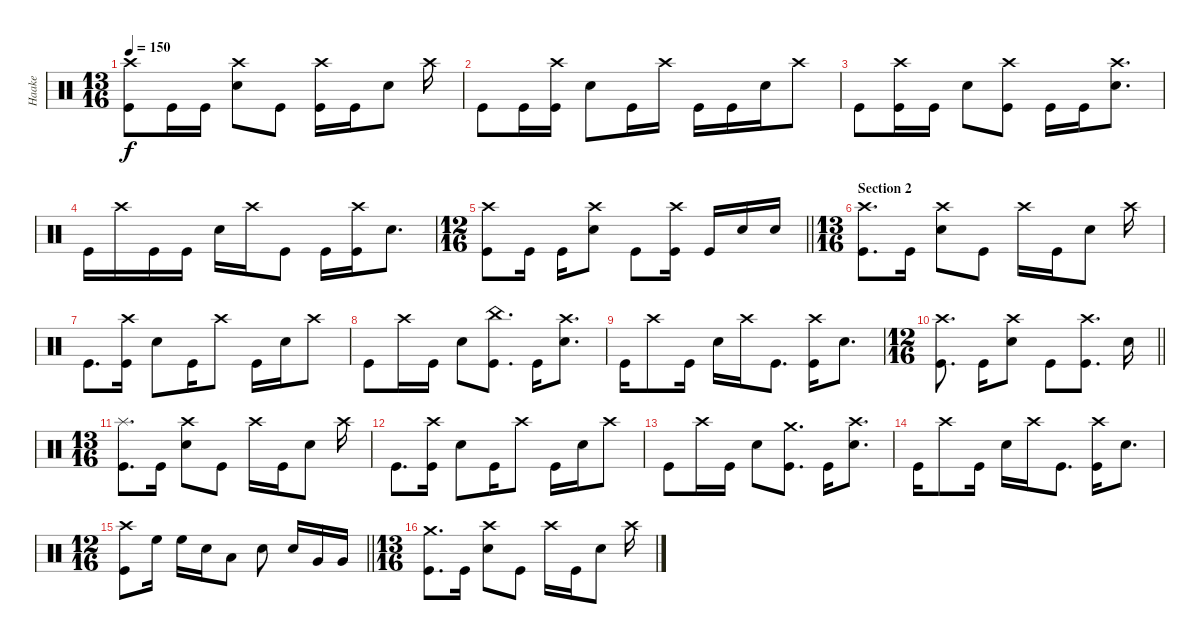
\track ("Haake" "Haake") {instrument percussion}
\staff {score}
\articulation defaults
\ts (13 16)
\tempo 150
\clef neutral
\ks c
("Crash high (hit)" "Kick (hit)").8{dy f} "Kick (hit)".16 "Kick (hit)".16 ("Crash high (hit)" "Snare (hit) 2").8 "Kick (hit)".8 ("Crash high (hit)" "Kick (hit)").16 "Kick (hit)".16 "Snare (hit) 2".8 "Crash high (hit)".16 |
"Kick (hit)".8 "Kick (hit)".16 ("Crash high (hit)" "Kick (hit)").16 "Snare (hit) 2".8 "Kick (hit)".16 "Crash high (hit)".16 "Kick (hit)".16 "Kick (hit)".16 "Snare (hit) 2".16 "Crash high (hit)".8 |
"Kick (hit)".8 ("Crash high (hit)" "Kick (hit)").16 "Kick (hit)".16 "Snare (hit) 2".8 ("Crash high (hit)" "Kick (hit)").8 "Kick (hit)".16 "Kick (hit)".16 ("Crash high (hit)" "Snare (hit) 2").8{d} |
"Kick (hit)".16 "Crash high (hit)".16 "Kick (hit)".16 "Kick (hit)".16 "Snare (hit) 2".16 "Crash high (hit)".16 "Kick (hit)".8 "Kick (hit)".16 ("Crash high (hit)" "Kick (hit)").16 "Snare (hit) 2".8{d} |
\ts (12 16)
\barLineRight lightlight
("Crash high (hit)" "Kick (hit)").8 "Kick (hit)".16 "Kick (hit)".16 ("Crash high (hit)" "Snare (hit) 2").8 "Kick (hit)".8 ("Crash high (hit)" "Kick (hit)").16 "Kick (hit)".16 "Snare (hit) 2".16 "Snare (hit) 2".16 |
\ts (13 16)
\section ("" "Section 2")
("Crash high (hit)" "Kick (hit)").8{d} "Kick (hit)".16 ("Crash high (hit)" "Snare (hit) 2").8 "Kick (hit)".8 "Crash high (hit)".16 "Kick (hit)".16 "Snare (hit) 2".8 "Crash high (hit)".16 |
"Kick (hit)".8{d} ("Crash high (hit)" "Kick (hit)").16 "Snare (hit) 2".8 "Kick (hit)".16 "Crash high (hit)".8 "Kick (hit)".16 "Snare (hit) 2".16 "Crash high (hit)".8 |
"Kick (hit)".8 "Crash high (hit)".16 "Kick (hit)".16 "Snare (hit) 2".8 ("China (hit)" "Kick (hit)").8{d} "Kick (hit)".16 ("Crash high (hit)" "Snare (hit) 2").8{d} |
"Kick (hit)".16 "Crash high (hit)".8 "Kick (hit)".16 "Snare (hit) 2".16 "Crash high (hit)".16 "Kick (hit)".8{d} ("Crash high (hit)" "Kick (hit)").16 "Snare (hit) 2".8{d} |
\ts (12 16)
\barLineRight lightlight
("Crash high (hit)" "Kick (hit)").8{d} "Kick (hit)".16 ("Crash high (hit)" "Snare (hit) 2").8 "Kick (hit)".8 ("Crash high (hit)" "Kick (hit)").8{d} "Snare (hit) 2".16 |
\ts (13 16)
("Splash (hit)" "Kick (hit)").8{d} "Kick (hit)".16 ("Crash high (hit)" "Snare (hit) 2").8 "Kick (hit)".8 "Crash high (hit)".16 "Kick (hit)".16 "Snare (hit) 2".8 "Crash high (hit)".16 |
"Kick (hit)".8{d} ("Crash high (hit)" "Kick (hit)").16 "Snare (hit) 2".8 "Kick (hit)".16 "Crash high (hit)".8 "Kick (hit)".16 "Snare (hit) 2".16 "Crash high (hit)".8 |
"Kick (hit)".8 "Crash high (hit)".16 "Kick (hit)".16 "Snare (hit) 2".8 ("Crash medium (hit)" "Kick (hit)").8{d} "Kick (hit)".16 ("Crash high (hit)" "Snare (hit) 2").8{d} |
"Kick (hit)".16 "Crash high (hit)".8 "Kick (hit)".16 "Snare (hit) 2".16 "Crash high (hit)".16 "Kick (hit)".8{d} ("Crash high (hit)" "Kick (hit)").16 "Snare (hit) 2".8{d} |
\ts (12 16)
\barLineRight lightlight
("Crash high (hit)" "Kick (hit)").8 "High Floor Tom (hit)".16 "High Floor Tom (hit)".16 "Snare (hit) 2".16 "Low Tom (hit)".8 "Snare (hit) 2".8 "Snare (hit) 2".16 "Very Low Tom (hit)".16 "Very Low Tom (hit)".16 |
\ts (13 16)
("Crash medium (hit)" "Kick (hit)").8{d} "Kick (hit)".16 ("Crash high (hit)" "Snare (hit) 2").8 "Kick (hit)".8 "Crash high (hit)".16 "Kick (hit)".16 "Snare (hit) 2".8 "Crash high (hit)".16
